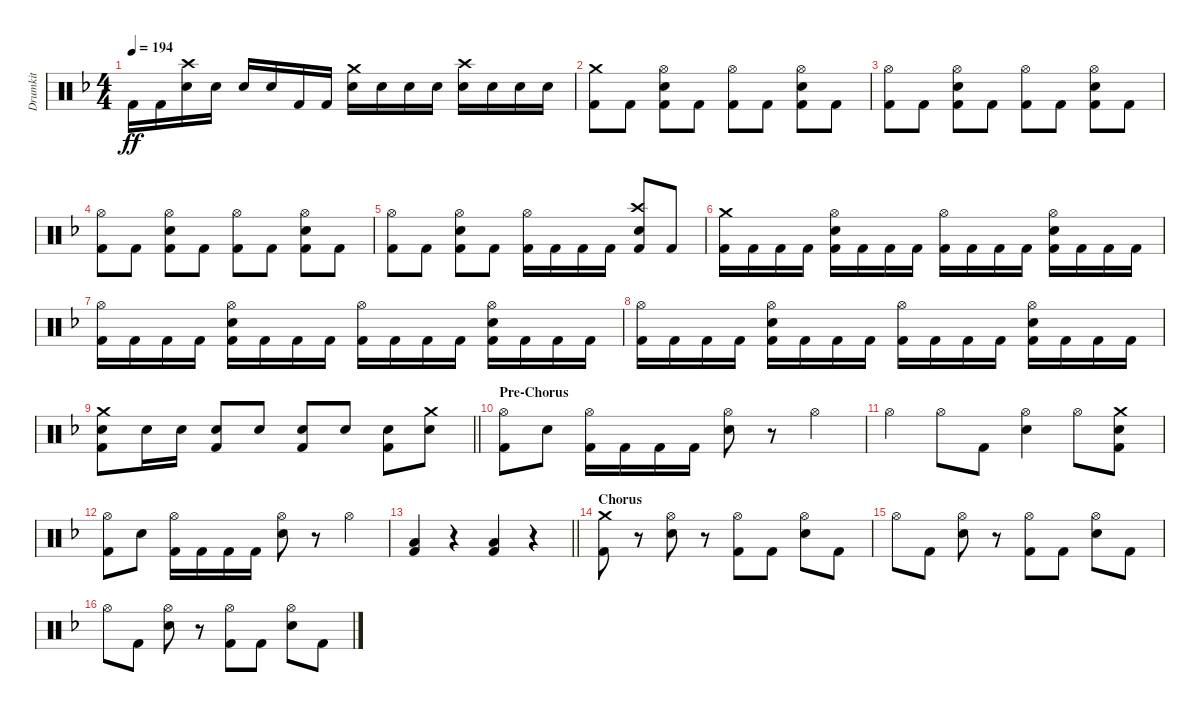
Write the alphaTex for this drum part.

\track ("Drumkit" "Drumkit") {instrument percussion}
\staff {score}
\articulation defaults
\ts (4 4)
\tempo 194
\clef neutral
\ks f "Kick (hit) 2".16{dy ff} "Kick (hit) 2".16
("Crash high (hit)" "Snare (hit) 2").16 "Snare (hit) 2".16 "Snare (hit) 2".16 "Snare (hit) 2".16 "Kick (hit) 2".16 "Kick (hit) 2".16 ("Crash medium (hit)" "Snare (hit) 2").16 "Snare (hit) 2".16 "Snare (hit) 2".16 "Snare (hit) 2".16 ("Crash high (hit)" "Snare (hit) 2").16 "Snare (hit) 2".16 "Snare (hit) 2".16 "Snare (hit) 2".16 |
("Crash medium (hit)" "Kick (hit) 2").8 "Kick (hit) 2".8 ("Hi-Hat (open)" "Snare (hit) 2" "Kick (hit) 2").8 "Kick (hit) 2".8 ("Hi-Hat (open)" "Kick (hit) 2").8 "Kick (hit) 2".8 ("Hi-Hat (open)" "Snare (hit) 2" "Kick (hit) 2").8 "Kick (hit) 2".8 |
("Hi-Hat (open)" "Kick (hit) 2").8 "Kick (hit) 2".8 ("Hi-Hat (open)" "Snare (hit) 2" "Kick (hit) 2").8 "Kick (hit) 2".8 ("Hi-Hat (open)" "Kick (hit) 2").8 "Kick (hit) 2".8 ("Hi-Hat (open)" "Snare (hit) 2" "Kick (hit) 2").8 "Kick (hit) 2".8 |
("Hi-Hat (open)" "Kick (hit) 2").8 "Kick (hit) 2".8 ("Hi-Hat (open)" "Snare (hit) 2" "Kick (hit) 2").8 "Kick (hit) 2".8 ("Hi-Hat (open)" "Kick (hit) 2").8 "Kick (hit) 2".8 ("Hi-Hat (open)" "Snare (hit) 2" "Kick (hit) 2").8 "Kick (hit) 2".8 |
("Hi-Hat (open)" "Kick (hit) 2").8 "Kick (hit) 2".8 ("Hi-Hat (open)" "Snare (hit) 2" "Kick (hit) 2").8 "Kick (hit) 2".8 ("Hi-Hat (open)" "Kick (hit) 2").16 "Kick (hit) 2".16 "Kick (hit) 2".16 "Kick (hit) 2".16 ("Crash high (hit)" "Snare (hit) 2" "Kick (hit) 2").8 "Kick (hit) 2".8 |
("Crash medium (hit)" "Kick (hit) 2").16 "Kick (hit) 2".16 "Kick (hit) 2".16 "Kick (hit) 2".16 ("Hi-Hat (open)" "Snare (hit) 2" "Kick (hit) 2").16 "Kick (hit) 2".16 "Kick (hit) 2".16 "Kick (hit) 2".16 ("Hi-Hat (open)" "Kick (hit) 2").16 "Kick (hit) 2".16 "Kick (hit) 2".16 "Kick (hit) 2".16 ("Hi-Hat (open)" "Snare (hit) 2" "Kick (hit) 2").16 "Kick (hit) 2".16 "Kick (hit) 2".16 "Kick (hit) 2".16 |
("Hi-Hat (open)" "Kick (hit) 2").16 "Kick (hit) 2".16 "Kick (hit) 2".16 "Kick (hit) 2".16 ("Hi-Hat (open)" "Snare (hit) 2" "Kick (hit) 2").16 "Kick (hit) 2".16 "Kick (hit) 2".16 "Kick (hit) 2".16 ("Hi-Hat (open)" "Kick (hit) 2").16 "Kick (hit) 2".16 "Kick (hit) 2".16 "Kick (hit) 2".16 ("Hi-Hat (open)" "Snare (hit) 2" "Kick (hit) 2").16 "Kick (hit) 2".16 "Kick (hit) 2".16 "Kick (hit) 2".16 |
("Hi-Hat (open)" "Kick (hit) 2").16 "Kick (hit) 2".16 "Kick (hit) 2".16 "Kick (hit) 2".16 ("Hi-Hat (open)" "Snare (hit) 2" "Kick (hit) 2").16 "Kick (hit) 2".16 "Kick (hit) 2".16 "Kick (hit) 2".16 ("Hi-Hat (open)" "Kick (hit) 2").16 "Kick (hit) 2".16 "Kick (hit) 2".16 "Kick (hit) 2".16 ("Hi-Hat (open)" "Snare (hit) 2" "Kick (hit) 2").16 "Kick (hit) 2".16 "Kick (hit) 2".16 "Kick (hit) 2".16 |
\barLineRight lightlight
("Crash medium (hit)" "Snare (hit) 2" "Kick (hit) 2").8 "Snare (hit) 2".16 "Snare (hit) 2".16 ("Snare (hit) 2" "Kick (hit) 2").8 "Snare (hit) 2".8 ("Snare (hit) 2" "Kick (hit) 2").8 "Snare (hit) 2".8 ("Snare (hit) 2" "Kick (hit) 2").8 ("Crash medium (hit)" "Snare (hit) 2").8 |
\section ("" "Pre-Chorus")
("Hi-Hat (open)" "Kick (hit) 2").8 "Snare (hit) 2".8 ("Hi-Hat (open)" "Kick (hit) 2").16 "Kick (hit) 2".16 "Kick (hit) 2".16 "Kick (hit) 2".16 ("Hi-Hat (open)" "Snare (hit) 2").8 r.8 "Hi-Hat (open)".4 |
"Hi-Hat (open)".4 "Hi-Hat (open)".8 "Kick (hit) 2".8 ("Hi-Hat (open)" "Snare (hit) 2").4 "Hi-Hat (open)".8 ("Crash medium (hit)" "Snare (hit) 2" "Kick (hit) 2").8 |
("Hi-Hat (open)" "Kick (hit) 2").8 "Snare (hit) 2".8 ("Hi-Hat (open)" "Kick (hit) 2").16 "Kick (hit) 2".16 "Kick (hit) 2".16 "Kick (hit) 2".16 ("Hi-Hat (open)" "Snare (hit) 2").8 r.8 "Hi-Hat (open)".4 |
\barLineRight lightlight
("Low Tom (hit)" "Kick (hit) 2").4 r.4 ("Low Tom (hit)" "Kick (hit) 2").4 r.4 |
\section ("" "Chorus")
("Crash medium (hit)" "Kick (hit) 2").8 r.8 ("Hi-Hat (open)" "Snare (hit) 2").8 r.8 ("Hi-Hat (open)" "Kick (hit) 2").8 "Kick (hit) 2".8 ("Hi-Hat (open)" "Snare (hit) 2").8 "Kick (hit) 2".8 |
"Hi-Hat (open)".8 "Kick (hit) 2".8 ("Hi-Hat (open)" "Snare (hit) 2").8 r.8 ("Hi-Hat (open)" "Kick (hit) 2").8 "Kick (hit) 2".8 ("Hi-Hat (open)" "Snare (hit) 2").8 "Kick (hit) 2".8 |
"Hi-Hat (open)".8 "Kick (hit) 2".8 ("Hi-Hat (open)" "Snare (hit) 2").8 r.8 ("Hi-Hat (open)" "Kick (hit) 2").8 "Kick (hit) 2".8 ("Hi-Hat (open)" "Snare (hit) 2").8 "Kick (hit) 2".8
